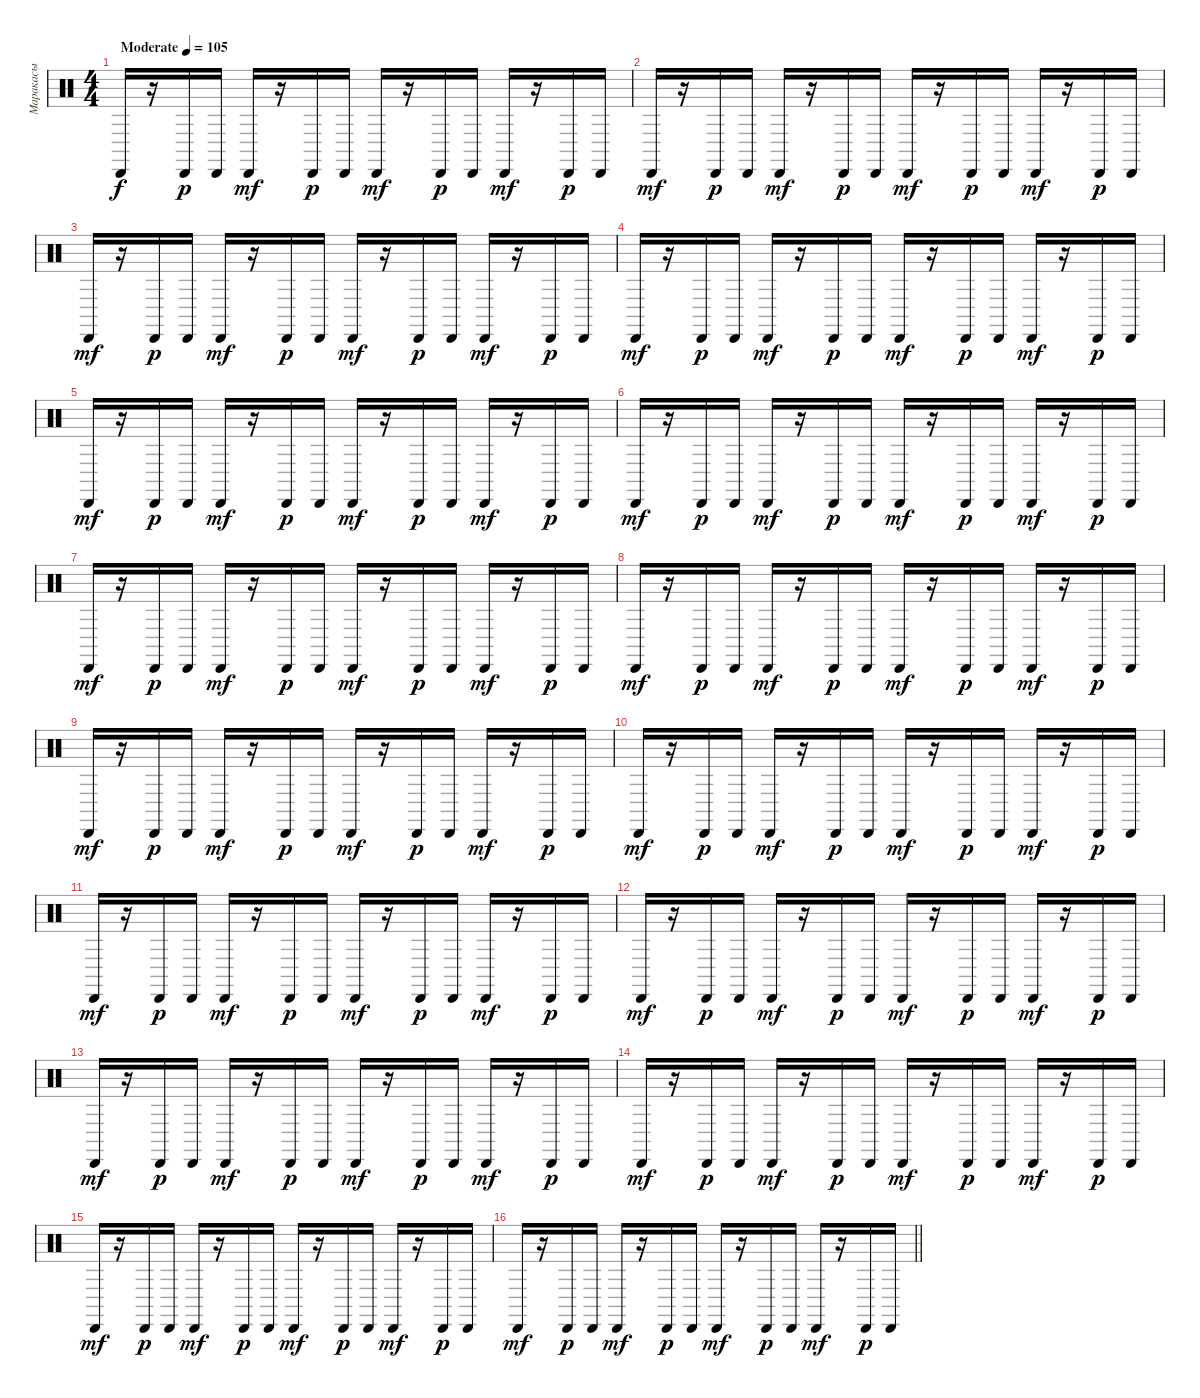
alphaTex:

\track ("Маракасы" "Маракасы") {instrument percussion}
\staff {score}
\articulation defaults
\ts (4 4)
\tempo (105 "Moderate")
\clef neutral
\ks c "Cabasa (hit)".16{dy f}
r.16 "Cabasa (hit)".16{dy p} "Cabasa (hit)".16 "Cabasa (hit)".16{dy mf} r.16 "Cabasa (hit)".16{dy p} "Cabasa (hit)".16 "Cabasa (hit)".16{dy mf} r.16 "Cabasa (hit)".16{dy p} "Cabasa (hit)".16 "Cabasa (hit)".16{dy mf} r.16 "Cabasa (hit)".16{dy p} "Cabasa (hit)".16 |
"Cabasa (hit)".16{dy mf} r.16 "Cabasa (hit)".16{dy p} "Cabasa (hit)".16 "Cabasa (hit)".16{dy mf} r.16 "Cabasa (hit)".16{dy p} "Cabasa (hit)".16 "Cabasa (hit)".16{dy mf} r.16 "Cabasa (hit)".16{dy p} "Cabasa (hit)".16 "Cabasa (hit)".16{dy mf} r.16 "Cabasa (hit)".16{dy p} "Cabasa (hit)".16 |
"Cabasa (hit)".16{dy mf} r.16 "Cabasa (hit)".16{dy p} "Cabasa (hit)".16 "Cabasa (hit)".16{dy mf} r.16 "Cabasa (hit)".16{dy p} "Cabasa (hit)".16 "Cabasa (hit)".16{dy mf} r.16 "Cabasa (hit)".16{dy p} "Cabasa (hit)".16 "Cabasa (hit)".16{dy mf} r.16 "Cabasa (hit)".16{dy p} "Cabasa (hit)".16 |
"Cabasa (hit)".16{dy mf} r.16 "Cabasa (hit)".16{dy p} "Cabasa (hit)".16 "Cabasa (hit)".16{dy mf} r.16 "Cabasa (hit)".16{dy p} "Cabasa (hit)".16 "Cabasa (hit)".16{dy mf} r.16 "Cabasa (hit)".16{dy p} "Cabasa (hit)".16 "Cabasa (hit)".16{dy mf} r.16 "Cabasa (hit)".16{dy p} "Cabasa (hit)".16 |
"Cabasa (hit)".16{dy mf} r.16 "Cabasa (hit)".16{dy p} "Cabasa (hit)".16 "Cabasa (hit)".16{dy mf} r.16 "Cabasa (hit)".16{dy p} "Cabasa (hit)".16 "Cabasa (hit)".16{dy mf} r.16 "Cabasa (hit)".16{dy p} "Cabasa (hit)".16 "Cabasa (hit)".16{dy mf} r.16 "Cabasa (hit)".16{dy p} "Cabasa (hit)".16 |
"Cabasa (hit)".16{dy mf} r.16 "Cabasa (hit)".16{dy p} "Cabasa (hit)".16 "Cabasa (hit)".16{dy mf} r.16 "Cabasa (hit)".16{dy p} "Cabasa (hit)".16 "Cabasa (hit)".16{dy mf} r.16 "Cabasa (hit)".16{dy p} "Cabasa (hit)".16 "Cabasa (hit)".16{dy mf} r.16 "Cabasa (hit)".16{dy p} "Cabasa (hit)".16 |
"Cabasa (hit)".16{dy mf} r.16 "Cabasa (hit)".16{dy p} "Cabasa (hit)".16 "Cabasa (hit)".16{dy mf} r.16 "Cabasa (hit)".16{dy p} "Cabasa (hit)".16 "Cabasa (hit)".16{dy mf} r.16 "Cabasa (hit)".16{dy p} "Cabasa (hit)".16 "Cabasa (hit)".16{dy mf} r.16 "Cabasa (hit)".16{dy p} "Cabasa (hit)".16 |
"Cabasa (hit)".16{dy mf} r.16 "Cabasa (hit)".16{dy p} "Cabasa (hit)".16 "Cabasa (hit)".16{dy mf} r.16 "Cabasa (hit)".16{dy p} "Cabasa (hit)".16 "Cabasa (hit)".16{dy mf} r.16 "Cabasa (hit)".16{dy p} "Cabasa (hit)".16 "Cabasa (hit)".16{dy mf} r.16 "Cabasa (hit)".16{dy p} "Cabasa (hit)".16 |
"Cabasa (hit)".16{dy mf} r.16 "Cabasa (hit)".16{dy p} "Cabasa (hit)".16 "Cabasa (hit)".16{dy mf} r.16 "Cabasa (hit)".16{dy p} "Cabasa (hit)".16 "Cabasa (hit)".16{dy mf} r.16 "Cabasa (hit)".16{dy p} "Cabasa (hit)".16 "Cabasa (hit)".16{dy mf} r.16 "Cabasa (hit)".16{dy p} "Cabasa (hit)".16 |
"Cabasa (hit)".16{dy mf} r.16 "Cabasa (hit)".16{dy p} "Cabasa (hit)".16 "Cabasa (hit)".16{dy mf} r.16 "Cabasa (hit)".16{dy p} "Cabasa (hit)".16 "Cabasa (hit)".16{dy mf} r.16 "Cabasa (hit)".16{dy p} "Cabasa (hit)".16 "Cabasa (hit)".16{dy mf} r.16 "Cabasa (hit)".16{dy p} "Cabasa (hit)".16 |
"Cabasa (hit)".16{dy mf} r.16 "Cabasa (hit)".16{dy p} "Cabasa (hit)".16 "Cabasa (hit)".16{dy mf} r.16 "Cabasa (hit)".16{dy p} "Cabasa (hit)".16 "Cabasa (hit)".16{dy mf} r.16 "Cabasa (hit)".16{dy p} "Cabasa (hit)".16 "Cabasa (hit)".16{dy mf} r.16 "Cabasa (hit)".16{dy p} "Cabasa (hit)".16 |
"Cabasa (hit)".16{dy mf} r.16 "Cabasa (hit)".16{dy p} "Cabasa (hit)".16 "Cabasa (hit)".16{dy mf} r.16 "Cabasa (hit)".16{dy p} "Cabasa (hit)".16 "Cabasa (hit)".16{dy mf} r.16 "Cabasa (hit)".16{dy p} "Cabasa (hit)".16 "Cabasa (hit)".16{dy mf} r.16 "Cabasa (hit)".16{dy p} "Cabasa (hit)".16 |
"Cabasa (hit)".16{dy mf} r.16 "Cabasa (hit)".16{dy p} "Cabasa (hit)".16 "Cabasa (hit)".16{dy mf} r.16 "Cabasa (hit)".16{dy p} "Cabasa (hit)".16 "Cabasa (hit)".16{dy mf} r.16 "Cabasa (hit)".16{dy p} "Cabasa (hit)".16 "Cabasa (hit)".16{dy mf} r.16 "Cabasa (hit)".16{dy p} "Cabasa (hit)".16 |
"Cabasa (hit)".16{dy mf} r.16 "Cabasa (hit)".16{dy p} "Cabasa (hit)".16 "Cabasa (hit)".16{dy mf} r.16 "Cabasa (hit)".16{dy p} "Cabasa (hit)".16 "Cabasa (hit)".16{dy mf} r.16 "Cabasa (hit)".16{dy p} "Cabasa (hit)".16 "Cabasa (hit)".16{dy mf} r.16 "Cabasa (hit)".16{dy p} "Cabasa (hit)".16 |
"Cabasa (hit)".16{dy mf} r.16 "Cabasa (hit)".16{dy p} "Cabasa (hit)".16 "Cabasa (hit)".16{dy mf} r.16 "Cabasa (hit)".16{dy p} "Cabasa (hit)".16 "Cabasa (hit)".16{dy mf} r.16 "Cabasa (hit)".16{dy p} "Cabasa (hit)".16 "Cabasa (hit)".16{dy mf} r.16 "Cabasa (hit)".16{dy p} "Cabasa (hit)".16 |
\barLineRight lightlight "Cabasa (hit)".16{dy mf}
r.16 "Cabasa (hit)".16{dy p} "Cabasa (hit)".16 "Cabasa (hit)".16{dy mf} r.16 "Cabasa (hit)".16{dy p} "Cabasa (hit)".16 "Cabasa (hit)".16{dy mf} r.16 "Cabasa (hit)".16{dy p} "Cabasa (hit)".16 "Cabasa (hit)".16{dy mf} r.16 "Cabasa (hit)".16{dy p} "Cabasa (hit)".16
